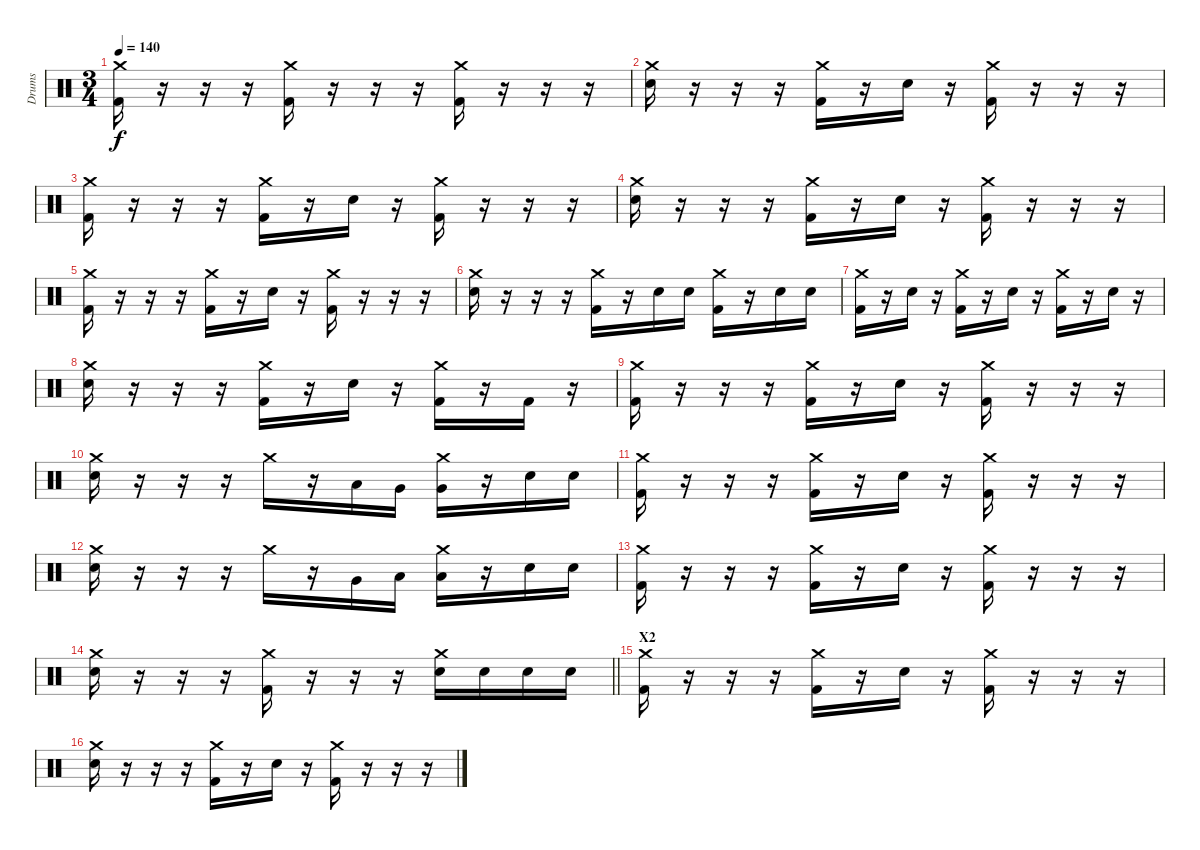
\track ("Drums" "Drums") {instrument percussion}
\staff {score}
\articulation defaults
\ts (3 4)
\tempo 140
\clef neutral
\ks c
("Crash medium (hit)" "Kick (hit) 2").16{dy f} r.16 r.16 r.16 ("Crash medium (hit)" "Kick (hit) 2").16 r.16 r.16 r.16 ("Crash medium (hit)" "Kick (hit) 2").16 r.16 r.16 r.16 |
("Crash medium (hit)" "Electric Snare (hit)").16 r.16 r.16 r.16 ("Crash medium (hit)" "Kick (hit) 2").16 r.16 "Electric Snare (hit)".16 r.16 ("Crash medium (hit)" "Kick (hit) 2").16 r.16 r.16 r.16 |
("Crash medium (hit)" "Kick (hit) 2").16 r.16 r.16 r.16 ("Crash medium (hit)" "Kick (hit) 2").16 r.16 "Electric Snare (hit)".16 r.16 ("Crash medium (hit)" "Kick (hit) 2").16 r.16 r.16 r.16 |
("Crash medium (hit)" "Electric Snare (hit)").16 r.16 r.16 r.16 ("Crash medium (hit)" "Kick (hit) 2").16 r.16 "Electric Snare (hit)".16 r.16 ("Crash medium (hit)" "Kick (hit) 2").16 r.16 r.16 r.16 |
("Crash medium (hit)" "Kick (hit) 2").16 r.16 r.16 r.16 ("Crash medium (hit)" "Kick (hit) 2").16 r.16 "Electric Snare (hit)".16 r.16 ("Crash medium (hit)" "Kick (hit) 2").16 r.16 r.16 r.16 |
("Crash medium (hit)" "Electric Snare (hit)").16 r.16 r.16 r.16 ("Crash medium (hit)" "Kick (hit) 2").16 r.16 "Electric Snare (hit)".16 "Electric Snare (hit)".16 ("Crash medium (hit)" "Kick (hit) 2").16 r.16 "Electric Snare (hit)".16 "Electric Snare (hit)".16 |
("Crash medium (hit)" "Kick (hit) 2").16 r.16 "Electric Snare (hit)".16 r.16 ("Crash medium (hit)" "Kick (hit) 2").16 r.16 "Electric Snare (hit)".16 r.16 ("Crash medium (hit)" "Kick (hit) 2").16 r.16 "Electric Snare (hit)".16 r.16 |
("Crash medium (hit)" "Electric Snare (hit)").16 r.16 r.16 r.16 ("Crash medium (hit)" "Kick (hit) 2").16 r.16 "Electric Snare (hit)".16 r.16 ("Crash medium (hit)" "Kick (hit) 2").16 r.16 "Kick (hit) 2".16 r.16 |
("Crash medium (hit)" "Kick (hit) 2").16 r.16 r.16 r.16 ("Crash medium (hit)" "Kick (hit) 2").16 r.16 "Electric Snare (hit)".16 r.16 ("Crash medium (hit)" "Kick (hit) 2").16 r.16 r.16 r.16 |
("Crash medium (hit)" "Electric Snare (hit)").16 r.16 r.16 r.16 "Crash medium (hit)".16 r.16 "Low Tom (hit)".16 "Very Low Tom (hit)".16 ("Crash medium (hit)" "Very Low Tom (hit)").16 r.16 "Electric Snare (hit)".16 "Electric Snare (hit)".16 |
("Crash medium (hit)" "Kick (hit) 2").16 r.16 r.16 r.16 ("Crash medium (hit)" "Kick (hit) 2").16 r.16 "Electric Snare (hit)".16 r.16 ("Crash medium (hit)" "Kick (hit) 2").16 r.16 r.16 r.16 |
("Crash medium (hit)" "Electric Snare (hit)").16 r.16 r.16 r.16 "Crash medium (hit)".16 r.16 "Very Low Tom (hit)".16 "Low Floor Tom (hit)".16 ("Crash medium (hit)" "Low Floor Tom (hit)").16 r.16 "Electric Snare (hit)".16 "Electric Snare (hit)".16 |
("Crash medium (hit)" "Kick (hit) 2").16 r.16 r.16 r.16 ("Crash medium (hit)" "Kick (hit) 2").16 r.16 "Electric Snare (hit)".16 r.16 ("Crash medium (hit)" "Kick (hit) 2").16 r.16 r.16 r.16 |
\barLineRight lightlight
("Crash medium (hit)" "Electric Snare (hit)").16 r.16 r.16 r.16 ("Crash medium (hit)" "Kick (hit) 2").16 r.16 r.16 r.16 ("Crash medium (hit)" "Electric Snare (hit)").16 "Electric Snare (hit)".16 "Electric Snare (hit)".16 "Electric Snare (hit)".16 |
\section ("" "X2")
("Crash medium (hit)" "Kick (hit) 2").16 r.16 r.16 r.16 ("Crash medium (hit)" "Kick (hit) 2").16 r.16 "Electric Snare (hit)".16 r.16 ("Crash medium (hit)" "Kick (hit) 2").16 r.16 r.16 r.16 |
("Crash medium (hit)" "Electric Snare (hit)").16 r.16 r.16 r.16 ("Crash medium (hit)" "Kick (hit) 2").16 r.16 "Electric Snare (hit)".16 r.16 ("Crash medium (hit)" "Kick (hit) 2").16 r.16 r.16 r.16
